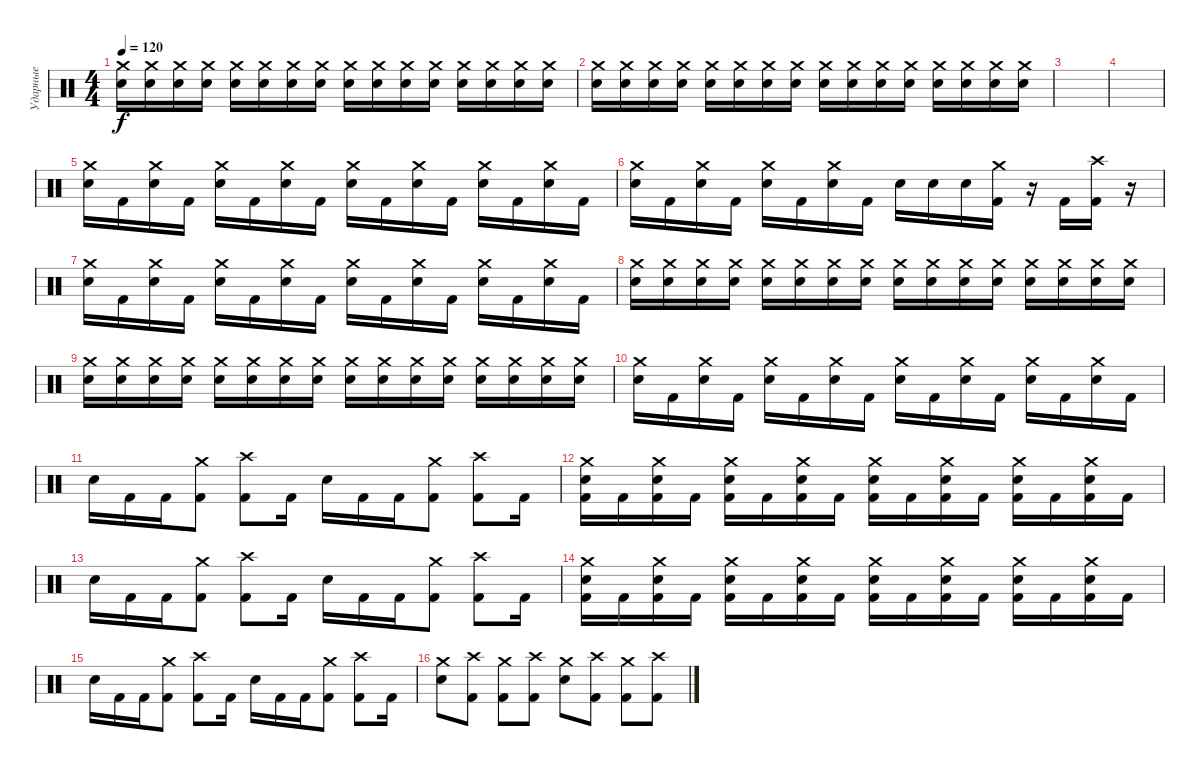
\track ("Ударные" "Ударные") {instrument percussion}
\staff {score}
\articulation defaults
\ts (4 4)
\tempo 120
\clef neutral
\ks c
("Crash medium (hit)" "Electric Snare (hit)").16{dy f} ("Crash medium (hit)" "Electric Snare (hit)").16 ("Crash medium (hit)" "Electric Snare (hit)").16 ("Crash medium (hit)" "Electric Snare (hit)").16 ("Crash medium (hit)" "Electric Snare (hit)").16 ("Crash medium (hit)" "Electric Snare (hit)").16 ("Crash medium (hit)" "Electric Snare (hit)").16 ("Crash medium (hit)" "Electric Snare (hit)").16 ("Crash medium (hit)" "Electric Snare (hit)").16 ("Crash medium (hit)" "Electric Snare (hit)").16 ("Crash medium (hit)" "Electric Snare (hit)").16 ("Crash medium (hit)" "Electric Snare (hit)").16 ("Crash medium (hit)" "Electric Snare (hit)").16 ("Crash medium (hit)" "Electric Snare (hit)").16 ("Crash medium (hit)" "Electric Snare (hit)").16 ("Crash medium (hit)" "Electric Snare (hit)").16 |
("Crash medium (hit)" "Electric Snare (hit)").16 ("Crash medium (hit)" "Electric Snare (hit)").16 ("Crash medium (hit)" "Electric Snare (hit)").16 ("Crash medium (hit)" "Electric Snare (hit)").16 ("Crash medium (hit)" "Electric Snare (hit)").16 ("Crash medium (hit)" "Electric Snare (hit)").16 ("Crash medium (hit)" "Electric Snare (hit)").16 ("Crash medium (hit)" "Electric Snare (hit)").16 ("Crash medium (hit)" "Electric Snare (hit)").16 ("Crash medium (hit)" "Electric Snare (hit)").16 ("Crash medium (hit)" "Electric Snare (hit)").16 ("Crash medium (hit)" "Electric Snare (hit)").16 ("Crash medium (hit)" "Electric Snare (hit)").16 ("Crash medium (hit)" "Electric Snare (hit)").16 ("Crash medium (hit)" "Electric Snare (hit)").16 ("Crash medium (hit)" "Electric Snare (hit)").16 |
|
|
("Crash medium (hit)" "Electric Snare (hit)").16 "Kick (hit) 2".16 ("Crash medium (hit)" "Electric Snare (hit)").16 "Kick (hit) 2".16 ("Crash medium (hit)" "Electric Snare (hit)").16 "Kick (hit) 2".16 ("Crash medium (hit)" "Electric Snare (hit)").16 "Kick (hit) 2".16 ("Crash medium (hit)" "Electric Snare (hit)").16 "Kick (hit) 2".16 ("Crash medium (hit)" "Electric Snare (hit)").16 "Kick (hit) 2".16 ("Crash medium (hit)" "Electric Snare (hit)").16 "Kick (hit) 2".16 ("Crash medium (hit)" "Electric Snare (hit)").16 "Kick (hit) 2".16 |
("Crash medium (hit)" "Electric Snare (hit)").16 "Kick (hit) 2".16 ("Crash medium (hit)" "Electric Snare (hit)").16 "Kick (hit) 2".16 ("Crash medium (hit)" "Electric Snare (hit)").16 "Kick (hit) 2".16 ("Crash medium (hit)" "Electric Snare (hit)").16 "Kick (hit) 2".16 "Electric Snare (hit)".16 "Electric Snare (hit)".16 "Electric Snare (hit)".16 ("Crash medium (hit)" "Kick (hit) 2").16 r.16 "Kick (hit) 2".16 ("Crash high (hit)" "Kick (hit) 2").16 r.16 |
("Crash medium (hit)" "Electric Snare (hit)").16 "Kick (hit) 2".16 ("Crash medium (hit)" "Electric Snare (hit)").16 "Kick (hit) 2".16 ("Crash medium (hit)" "Electric Snare (hit)").16 "Kick (hit) 2".16 ("Crash medium (hit)" "Electric Snare (hit)").16 "Kick (hit) 2".16 ("Crash medium (hit)" "Electric Snare (hit)").16 "Kick (hit) 2".16 ("Crash medium (hit)" "Electric Snare (hit)").16 "Kick (hit) 2".16 ("Crash medium (hit)" "Electric Snare (hit)").16 "Kick (hit) 2".16 ("Crash medium (hit)" "Electric Snare (hit)").16 "Kick (hit) 2".16 |
("Crash medium (hit)" "Electric Snare (hit)").16 ("Crash medium (hit)" "Electric Snare (hit)").16 ("Crash medium (hit)" "Electric Snare (hit)").16 ("Crash medium (hit)" "Electric Snare (hit)").16 ("Crash medium (hit)" "Electric Snare (hit)").16 ("Crash medium (hit)" "Electric Snare (hit)").16 ("Crash medium (hit)" "Electric Snare (hit)").16 ("Crash medium (hit)" "Electric Snare (hit)").16 ("Crash medium (hit)" "Electric Snare (hit)").16 ("Crash medium (hit)" "Electric Snare (hit)").16 ("Crash medium (hit)" "Electric Snare (hit)").16 ("Crash medium (hit)" "Electric Snare (hit)").16 ("Crash medium (hit)" "Electric Snare (hit)").16 ("Crash medium (hit)" "Electric Snare (hit)").16 ("Crash medium (hit)" "Electric Snare (hit)").16 ("Crash medium (hit)" "Electric Snare (hit)").16 |
("Crash medium (hit)" "Electric Snare (hit)").16 ("Crash medium (hit)" "Electric Snare (hit)").16 ("Crash medium (hit)" "Electric Snare (hit)").16 ("Crash medium (hit)" "Electric Snare (hit)").16 ("Crash medium (hit)" "Electric Snare (hit)").16 ("Crash medium (hit)" "Electric Snare (hit)").16 ("Crash medium (hit)" "Electric Snare (hit)").16 ("Crash medium (hit)" "Electric Snare (hit)").16 ("Crash medium (hit)" "Electric Snare (hit)").16 ("Crash medium (hit)" "Electric Snare (hit)").16 ("Crash medium (hit)" "Electric Snare (hit)").16 ("Crash medium (hit)" "Electric Snare (hit)").16 ("Crash medium (hit)" "Electric Snare (hit)").16 ("Crash medium (hit)" "Electric Snare (hit)").16 ("Crash medium (hit)" "Electric Snare (hit)").16 ("Crash medium (hit)" "Electric Snare (hit)").16 |
("Crash medium (hit)" "Electric Snare (hit)").16 "Kick (hit) 2".16 ("Crash medium (hit)" "Electric Snare (hit)").16 "Kick (hit) 2".16 ("Crash medium (hit)" "Electric Snare (hit)").16 "Kick (hit) 2".16 ("Crash medium (hit)" "Electric Snare (hit)").16 "Kick (hit) 2".16 ("Crash medium (hit)" "Electric Snare (hit)").16 "Kick (hit) 2".16 ("Crash medium (hit)" "Electric Snare (hit)").16 "Kick (hit) 2".16 ("Crash medium (hit)" "Electric Snare (hit)").16 "Kick (hit) 2".16 ("Crash medium (hit)" "Electric Snare (hit)").16 "Kick (hit) 2".16 |
"Electric Snare (hit)".16 "Kick (hit) 2".16 "Kick (hit) 2".16 ("Crash medium (hit)" "Kick (hit) 2").8 ("Crash high (hit)" "Kick (hit) 2").8 "Kick (hit) 2".16 "Electric Snare (hit)".16 "Kick (hit) 2".16 "Kick (hit) 2".16 ("Crash medium (hit)" "Kick (hit) 2").8 ("Crash high (hit)" "Kick (hit) 2").8 "Kick (hit) 2".16 |
("Crash medium (hit)" "Electric Snare (hit)" "Kick (hit) 2").16 "Kick (hit) 2".16 ("Crash medium (hit)" "Electric Snare (hit)" "Kick (hit) 2").16 "Kick (hit) 2".16 ("Crash medium (hit)" "Electric Snare (hit)" "Kick (hit) 2").16 "Kick (hit) 2".16 ("Crash medium (hit)" "Electric Snare (hit)" "Kick (hit) 2").16 "Kick (hit) 2".16 ("Crash medium (hit)" "Electric Snare (hit)" "Kick (hit) 2").16 "Kick (hit) 2".16 ("Crash medium (hit)" "Electric Snare (hit)" "Kick (hit) 2").16 "Kick (hit) 2".16 ("Crash medium (hit)" "Electric Snare (hit)" "Kick (hit) 2").16 "Kick (hit) 2".16 ("Crash medium (hit)" "Electric Snare (hit)" "Kick (hit) 2").16 "Kick (hit) 2".16 |
"Electric Snare (hit)".16 "Kick (hit) 2".16 "Kick (hit) 2".16 ("Crash medium (hit)" "Kick (hit) 2").8 ("Crash high (hit)" "Kick (hit) 2").8 "Kick (hit) 2".16 "Electric Snare (hit)".16 "Kick (hit) 2".16 "Kick (hit) 2".16 ("Crash medium (hit)" "Kick (hit) 2").8 ("Crash high (hit)" "Kick (hit) 2").8 "Kick (hit) 2".16 |
("Crash medium (hit)" "Electric Snare (hit)" "Kick (hit) 2").16 "Kick (hit) 2".16 ("Crash medium (hit)" "Electric Snare (hit)" "Kick (hit) 2").16 "Kick (hit) 2".16 ("Crash medium (hit)" "Electric Snare (hit)" "Kick (hit) 2").16 "Kick (hit) 2".16 ("Crash medium (hit)" "Electric Snare (hit)" "Kick (hit) 2").16 "Kick (hit) 2".16 ("Crash medium (hit)" "Electric Snare (hit)" "Kick (hit) 2").16 "Kick (hit) 2".16 ("Crash medium (hit)" "Electric Snare (hit)" "Kick (hit) 2").16 "Kick (hit) 2".16 ("Crash medium (hit)" "Electric Snare (hit)" "Kick (hit) 2").16 "Kick (hit) 2".16 ("Crash medium (hit)" "Electric Snare (hit)" "Kick (hit) 2").16 "Kick (hit) 2".16 |
"Electric Snare (hit)".16 "Kick (hit) 2".16 "Kick (hit) 2".16 ("Crash medium (hit)" "Kick (hit) 2").8 ("Crash high (hit)" "Kick (hit) 2").8 "Kick (hit) 2".16 "Electric Snare (hit)".16 "Kick (hit) 2".16 "Kick (hit) 2".16 ("Crash medium (hit)" "Kick (hit) 2").8 ("Crash high (hit)" "Kick (hit) 2").8 "Kick (hit) 2".16 |
("Crash medium (hit)" "Electric Snare (hit)").8 ("Crash high (hit)" "Kick (hit) 2").8 ("Crash medium (hit)" "Kick (hit) 2").8 ("Crash high (hit)" "Kick (hit) 2").8 ("Crash medium (hit)" "Electric Snare (hit)").8 ("Crash high (hit)" "Kick (hit) 2").8 ("Crash medium (hit)" "Kick (hit) 2").8 ("Crash high (hit)" "Kick (hit) 2").8
